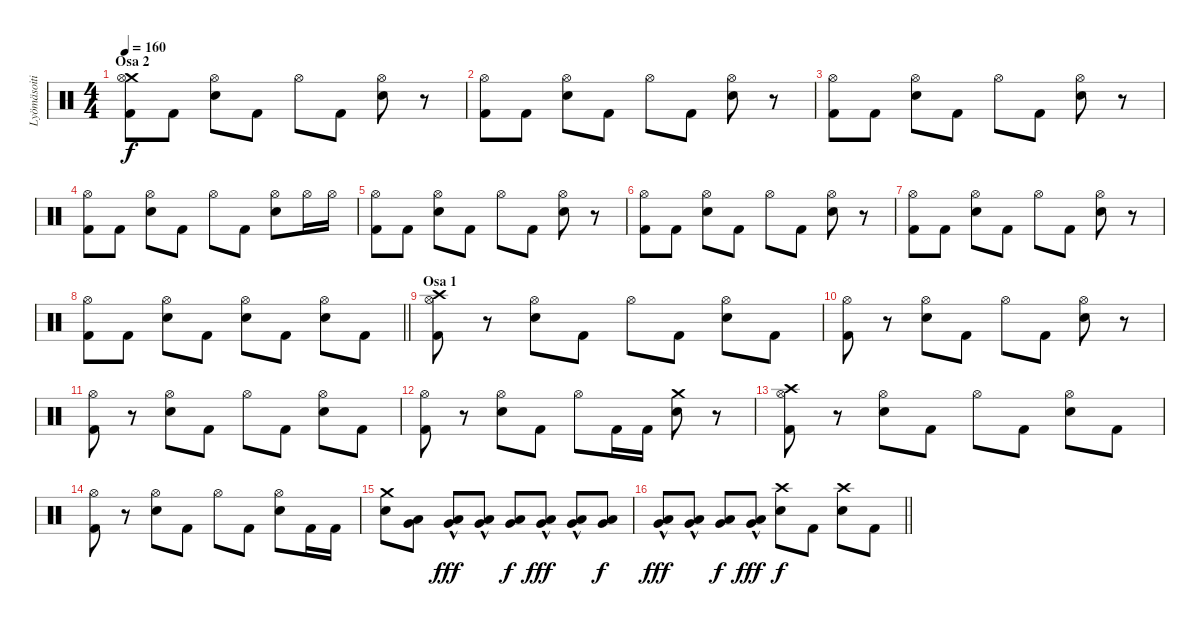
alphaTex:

\track ("Lyömäsoitin" "Lyömäsoiti") {instrument percussion}
\staff {score}
\articulation defaults
\ts (4 4)
\section ("" "Osa 2")
\tempo 160
\clef neutral
\ks c
("Crash medium (hit)" "Hi-Hat (open)" "Kick (hit) 2").8{dy f} "Kick (hit) 2".8 ("Hi-Hat (open)" "Snare (hit) 2").8 "Kick (hit) 2".8 "Hi-Hat (open)".8 "Kick (hit) 2".8 ("Hi-Hat (open)" "Snare (hit) 2").8 r.8 |
("Hi-Hat (open)" "Kick (hit) 2").8 "Kick (hit) 2".8 ("Hi-Hat (open)" "Snare (hit) 2").8 "Kick (hit) 2".8 "Hi-Hat (open)".8 "Kick (hit) 2".8 ("Hi-Hat (open)" "Snare (hit) 2").8 r.8 |
("Hi-Hat (open)" "Kick (hit) 2").8 "Kick (hit) 2".8 ("Hi-Hat (open)" "Snare (hit) 2").8 "Kick (hit) 2".8 "Hi-Hat (open)".8 "Kick (hit) 2".8 ("Hi-Hat (open)" "Snare (hit) 2").8 r.8 |
("Hi-Hat (open)" "Kick (hit) 2").8 "Kick (hit) 2".8 ("Hi-Hat (open)" "Snare (hit) 2").8 "Kick (hit) 2".8 "Hi-Hat (open)".8 "Kick (hit) 2".8 ("Hi-Hat (open)" "Snare (hit) 2").8 "Hi-Hat (open)".16 "Hi-Hat (open)".16 |
("Hi-Hat (open)" "Kick (hit) 2").8 "Kick (hit) 2".8 ("Hi-Hat (open)" "Snare (hit) 2").8 "Kick (hit) 2".8 "Hi-Hat (open)".8 "Kick (hit) 2".8 ("Hi-Hat (open)" "Snare (hit) 2").8 r.8 |
("Hi-Hat (open)" "Kick (hit) 2").8 "Kick (hit) 2".8 ("Hi-Hat (open)" "Snare (hit) 2").8 "Kick (hit) 2".8 "Hi-Hat (open)".8 "Kick (hit) 2".8 ("Hi-Hat (open)" "Snare (hit) 2").8 r.8 |
("Hi-Hat (open)" "Kick (hit) 2").8 "Kick (hit) 2".8 ("Hi-Hat (open)" "Snare (hit) 2").8 "Kick (hit) 2".8 "Hi-Hat (open)".8 "Kick (hit) 2".8 ("Hi-Hat (open)" "Snare (hit) 2").8 r.8 |
\barLineRight lightlight
("Hi-Hat (open)" "Kick (hit) 2").8 "Kick (hit) 2".8 ("Hi-Hat (open)" "Snare (hit) 2").8 "Kick (hit) 2".8 ("Hi-Hat (open)" "Snare (hit) 2").8 "Kick (hit) 2".8 ("Hi-Hat (open)" "Snare (hit) 2").8 "Kick (hit) 2".8 |
\section ("" "Osa 1")
("Crash high (hit)" "Hi-Hat (open)" "Kick (hit) 2").8 r.8 ("Hi-Hat (open)" "Snare (hit) 2").8 "Kick (hit) 2".8 "Hi-Hat (open)".8 "Kick (hit) 2".8 ("Hi-Hat (open)" "Snare (hit) 2").8 "Kick (hit) 2".8 |
("Hi-Hat (open)" "Kick (hit) 2").8 r.8 ("Hi-Hat (open)" "Snare (hit) 2").8 "Kick (hit) 2".8 "Hi-Hat (open)".8 "Kick (hit) 2".8 ("Hi-Hat (open)" "Snare (hit) 2").8 r.8 |
("Hi-Hat (open)" "Kick (hit) 2").8 r.8 ("Hi-Hat (open)" "Snare (hit) 2").8 "Kick (hit) 2".8 "Hi-Hat (open)".8 "Kick (hit) 2".8 ("Hi-Hat (open)" "Snare (hit) 2").8 "Kick (hit) 2".8 |
("Hi-Hat (open)" "Kick (hit) 2").8 r.8 ("Hi-Hat (open)" "Snare (hit) 2").8 "Kick (hit) 2".8 "Hi-Hat (open)".8 "Kick (hit) 2".16 "Kick (hit) 2".16 ("Crash medium (hit)" "Snare (hit) 2").8 r.8 |
("Crash high (hit)" "Hi-Hat (open)" "Kick (hit) 2").8 r.8 ("Hi-Hat (open)" "Snare (hit) 2").8 "Kick (hit) 2".8 "Hi-Hat (open)".8 "Kick (hit) 2".8 ("Hi-Hat (open)" "Snare (hit) 2").8 "Kick (hit) 2".8 |
("Hi-Hat (open)" "Kick (hit) 2").8 r.8 ("Hi-Hat (open)" "Snare (hit) 2").8 "Kick (hit) 2".8 "Hi-Hat (open)".8 "Kick (hit) 2".8 ("Hi-Hat (open)" "Snare (hit) 2").8 "Kick (hit) 2".16 "Kick (hit) 2".16 |
("Crash medium (hit)" "Snare (hit) 2").8 ("Low Tom (hit)" "Very Low Tom (hit)").8 ("Low Tom (hit)"{hac} "Very Low Tom (hit)"{hac}).8{dy fff} ("Low Tom (hit)"{hac} "Very Low Tom (hit)"{hac}).8 ("Low Tom (hit)" "Very Low Tom (hit)").8{dy f} ("Low Tom (hit)"{hac} "Very Low Tom (hit)"{hac}).8{dy fff} ("Low Tom (hit)"{hac} "Very Low Tom (hit)"{hac}).8 ("Low Tom (hit)" "Very Low Tom (hit)").8{dy f} |
\barLineRight lightlight
("Low Tom (hit)"{hac} "Very Low Tom (hit)"{hac}).8{dy fff} ("Low Tom (hit)"{hac} "Very Low Tom (hit)"{hac}).8 ("Low Tom (hit)" "Very Low Tom (hit)").8{dy f} ("Low Tom (hit)"{hac} "Very Low Tom (hit)"{hac}).8{dy fff} ("Crash high (hit)" "Snare (hit) 2").8{dy f} "Kick (hit) 2".8 ("Crash high (hit)" "Snare (hit) 2").8 "Kick (hit) 2".8
